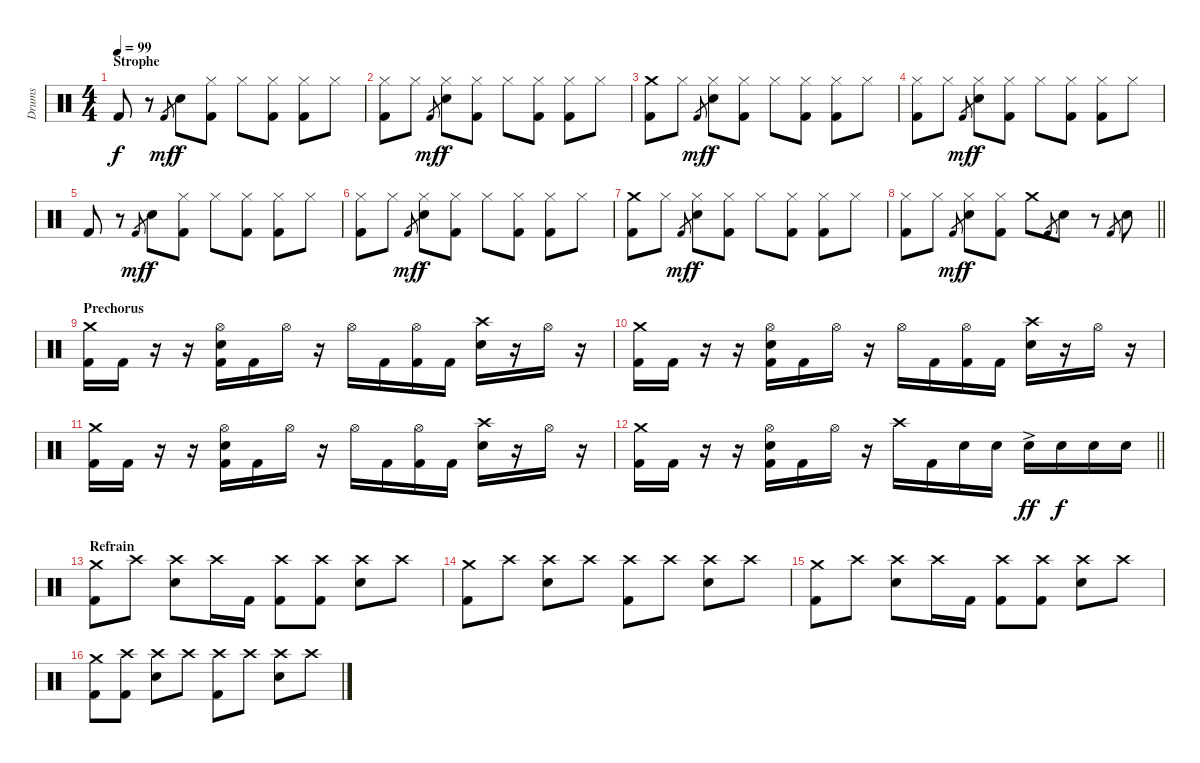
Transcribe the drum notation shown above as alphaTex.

\track ("Drums" "Drums") {instrument percussion}
\staff {score}
\articulation defaults
\ts (4 4)
\section ("" "Strophe")
\tempo 99
\clef neutral
\ks c "Kick (hit) 2".8{dy f}
r.8 "Kick (hit) 2".8{gr dy mf} "Electric Snare (hit)".8{dy f} ("Hi-Hat (closed)" "Kick (hit) 2").8 "Hi-Hat (closed)".8 ("Hi-Hat (closed)" "Kick (hit) 2").8 ("Hi-Hat (closed)" "Kick (hit) 2").8 "Hi-Hat (closed)".8 |
("Hi-Hat (closed)" "Kick (hit) 2").8 "Hi-Hat (closed)".8 "Kick (hit) 2".8{gr dy mf} ("Hi-Hat (closed)" "Electric Snare (hit)").8{dy f} ("Hi-Hat (closed)" "Kick (hit) 2").8 "Hi-Hat (closed)".8 ("Hi-Hat (closed)" "Kick (hit) 2").8 ("Hi-Hat (closed)" "Kick (hit) 2").8 "Hi-Hat (closed)".8 |
("Crash medium (hit)" "Kick (hit) 2").8 "Hi-Hat (closed)".8 "Kick (hit) 2".8{gr dy mf} ("Hi-Hat (closed)" "Electric Snare (hit)").8{dy f} ("Hi-Hat (closed)" "Kick (hit) 2").8 "Hi-Hat (closed)".8 ("Hi-Hat (closed)" "Kick (hit) 2").8 ("Hi-Hat (closed)" "Kick (hit) 2").8 "Hi-Hat (closed)".8 |
("Hi-Hat (closed)" "Kick (hit) 2").8 "Hi-Hat (closed)".8 "Kick (hit) 2".8{gr dy mf} ("Hi-Hat (closed)" "Electric Snare (hit)").8{dy f} ("Hi-Hat (closed)" "Kick (hit) 2").8 "Hi-Hat (closed)".8 ("Hi-Hat (closed)" "Kick (hit) 2").8 ("Hi-Hat (closed)" "Kick (hit) 2").8 "Hi-Hat (closed)".8 |
"Kick (hit) 2".8 r.8 "Kick (hit) 2".8{gr dy mf} "Electric Snare (hit)".8{dy f} ("Hi-Hat (closed)" "Kick (hit) 2").8 "Hi-Hat (closed)".8 ("Hi-Hat (closed)" "Kick (hit) 2").8 ("Hi-Hat (closed)" "Kick (hit) 2").8 "Hi-Hat (closed)".8 |
("Hi-Hat (closed)" "Kick (hit) 2").8 "Hi-Hat (closed)".8 "Kick (hit) 2".8{gr dy mf} ("Hi-Hat (closed)" "Electric Snare (hit)").8{dy f} ("Hi-Hat (closed)" "Kick (hit) 2").8 "Hi-Hat (closed)".8 ("Hi-Hat (closed)" "Kick (hit) 2").8 ("Hi-Hat (closed)" "Kick (hit) 2").8 "Hi-Hat (closed)".8 |
("Crash medium (hit)" "Kick (hit) 2").8 "Hi-Hat (closed)".8 "Kick (hit) 2".8{gr dy mf} ("Hi-Hat (closed)" "Electric Snare (hit)").8{dy f} ("Hi-Hat (closed)" "Kick (hit) 2").8 "Hi-Hat (closed)".8 ("Hi-Hat (closed)" "Kick (hit) 2").8 ("Hi-Hat (closed)" "Kick (hit) 2").8 "Hi-Hat (closed)".8 |
\barLineRight lightlight
("Hi-Hat (closed)" "Kick (hit) 2").8 "Hi-Hat (closed)".8 "Kick (hit) 2".8{gr dy mf} ("Hi-Hat (closed)" "Electric Snare (hit)").8{dy f} ("Hi-Hat (closed)" "Kick (hit) 2").8 "Crash medium (hit)".8 "Kick (hit) 2".8{gr} "Electric Snare (hit)".8 r.8 "Kick (hit) 2".8{gr} "Electric Snare (hit)".8 |
\section ("" "Prechorus")
("Crash medium (hit)" "Kick (hit) 2").16 "Kick (hit) 2".16 r.16 r.16 ("Hi-Hat (open)" "Electric Snare (hit)" "Kick (hit) 2").16 "Kick (hit) 2".16 "Hi-Hat (open)".16 r.16 "Hi-Hat (open)".16 "Kick (hit) 2".16 ("Hi-Hat (open)" "Kick (hit) 2").16 "Kick (hit) 2".16 ("Crash high (hit)" "Electric Snare (hit)").16 r.16 "Hi-Hat (open)".16 r.16 |
("Crash medium (hit)" "Kick (hit) 2").16 "Kick (hit) 2".16 r.16 r.16 ("Hi-Hat (open)" "Electric Snare (hit)" "Kick (hit) 2").16 "Kick (hit) 2".16 "Hi-Hat (open)".16 r.16 "Hi-Hat (open)".16 "Kick (hit) 2".16 ("Hi-Hat (open)" "Kick (hit) 2").16 "Kick (hit) 2".16 ("Crash high (hit)" "Electric Snare (hit)").16 r.16 "Hi-Hat (open)".16 r.16 |
("Crash medium (hit)" "Kick (hit) 2").16 "Kick (hit) 2".16 r.16 r.16 ("Hi-Hat (open)" "Electric Snare (hit)" "Kick (hit) 2").16 "Kick (hit) 2".16 "Hi-Hat (open)".16 r.16 "Hi-Hat (open)".16 "Kick (hit) 2".16 ("Hi-Hat (open)" "Kick (hit) 2").16 "Kick (hit) 2".16 ("Crash high (hit)" "Electric Snare (hit)").16 r.16 "Hi-Hat (open)".16 r.16 |
\barLineRight lightlight
("Crash medium (hit)" "Kick (hit) 2").16 "Kick (hit) 2".16 r.16 r.16 ("Hi-Hat (open)" "Electric Snare (hit)" "Kick (hit) 2").16 "Kick (hit) 2".16 "Hi-Hat (open)".16 r.16 "Crash high (hit)".16 "Kick (hit) 2".16 "Electric Snare (hit)".16 "Electric Snare (hit)".16 "Electric Snare (hit)"{ac}.16{dy ff} "Electric Snare (hit)".16{dy f} "Electric Snare (hit)".16 "Electric Snare (hit)".16 |
\section ("" "Refrain")
("Crash medium (hit)" "Kick (hit) 2").8 "Crash high (hit)".8 ("Crash high (hit)" "Electric Snare (hit)").8 "Crash high (hit)".16 "Kick (hit) 2".16 ("Crash high (hit)" "Kick (hit) 2").8 ("Crash high (hit)" "Kick (hit) 2").8 ("Crash high (hit)" "Electric Snare (hit)").8 "Crash high (hit)".8 |
("Crash medium (hit)" "Kick (hit) 2").8 "Crash high (hit)".8 ("Crash high (hit)" "Electric Snare (hit)").8 "Crash high (hit)".8 ("Crash high (hit)" "Kick (hit) 2").8 "Crash high (hit)".8 ("Crash high (hit)" "Electric Snare (hit)").8 "Crash high (hit)".8 |
("Crash medium (hit)" "Kick (hit) 2").8 "Crash high (hit)".8 ("Crash high (hit)" "Electric Snare (hit)").8 "Crash high (hit)".16 "Kick (hit) 2".16 ("Crash high (hit)" "Kick (hit) 2").8 ("Crash high (hit)" "Kick (hit) 2").8 ("Crash high (hit)" "Electric Snare (hit)").8 "Crash high (hit)".8 |
("Crash medium (hit)" "Kick (hit) 2").8 ("Crash high (hit)" "Kick (hit) 2").8 ("Crash high (hit)" "Electric Snare (hit)").8 "Crash high (hit)".8 ("Crash high (hit)" "Kick (hit) 2").8 "Crash high (hit)".8 ("Crash high (hit)" "Electric Snare (hit)").8 "Crash high (hit)".8
